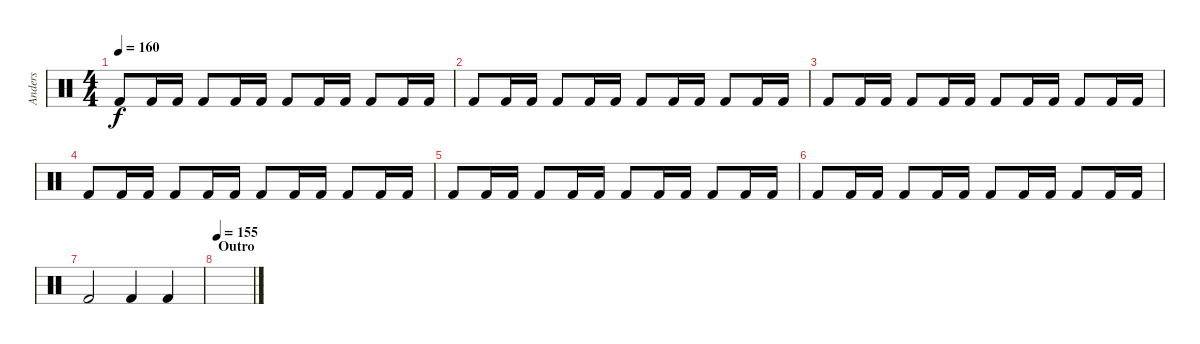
\track ("Anders" "Anders") {instrument percussion}
\staff {score}
\articulation defaults
\ts (4 4)
\tempo 160
\clef neutral
\ks c "Kick (hit) 2".8{dy f} "Kick (hit) 2".16 "Kick (hit) 2".16 "Kick (hit) 2".8 "Kick (hit) 2".16 "Kick (hit) 2".16 "Kick (hit) 2".8 "Kick (hit) 2".16 "Kick (hit) 2".16 "Kick (hit) 2".8 "Kick (hit) 2".16 "Kick (hit) 2".16
|
"Kick (hit) 2".8 "Kick (hit) 2".16 "Kick (hit) 2".16 "Kick (hit) 2".8 "Kick (hit) 2".16 "Kick (hit) 2".16 "Kick (hit) 2".8 "Kick (hit) 2".16 "Kick (hit) 2".16 "Kick (hit) 2".8 "Kick (hit) 2".16 "Kick (hit) 2".16 |
"Kick (hit) 2".8 "Kick (hit) 2".16 "Kick (hit) 2".16 "Kick (hit) 2".8 "Kick (hit) 2".16 "Kick (hit) 2".16 "Kick (hit) 2".8 "Kick (hit) 2".16 "Kick (hit) 2".16 "Kick (hit) 2".8 "Kick (hit) 2".16 "Kick (hit) 2".16 |
"Kick (hit) 2".8 "Kick (hit) 2".16 "Kick (hit) 2".16 "Kick (hit) 2".8 "Kick (hit) 2".16 "Kick (hit) 2".16 "Kick (hit) 2".8 "Kick (hit) 2".16 "Kick (hit) 2".16 "Kick (hit) 2".8 "Kick (hit) 2".16 "Kick (hit) 2".16 |
"Kick (hit) 2".8 "Kick (hit) 2".16 "Kick (hit) 2".16 "Kick (hit) 2".8 "Kick (hit) 2".16 "Kick (hit) 2".16 "Kick (hit) 2".8 "Kick (hit) 2".16 "Kick (hit) 2".16 "Kick (hit) 2".8 "Kick (hit) 2".16 "Kick (hit) 2".16 |
"Kick (hit) 2".8 "Kick (hit) 2".16 "Kick (hit) 2".16 "Kick (hit) 2".8 "Kick (hit) 2".16 "Kick (hit) 2".16 "Kick (hit) 2".8 "Kick (hit) 2".16 "Kick (hit) 2".16 "Kick (hit) 2".8 "Kick (hit) 2".16 "Kick (hit) 2".16 |
"Kick (hit) 2".2 "Kick (hit) 2".4 "Kick (hit) 2".4 |
\section ("" "Outro")
\tempo 155
